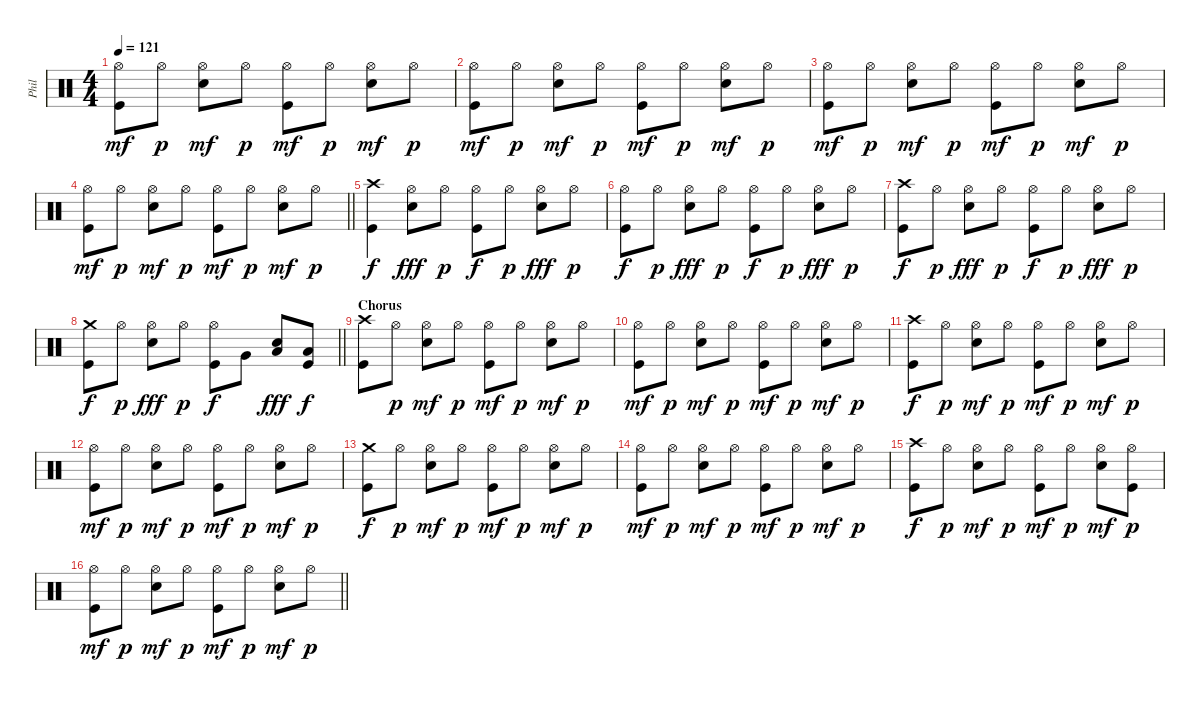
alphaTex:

\track ("Phil" "Phil") {instrument percussion}
\staff {score}
\articulation defaults
\ts (4 4)
\tempo 121
\clef neutral
\ks c
("Hi-Hat (open)" "Kick (hit)").8{dy mf} "Hi-Hat (open)".8{dy p} ("Hi-Hat (open)" "Snare (hit) 2").8{dy mf} "Hi-Hat (open)".8{dy p} ("Hi-Hat (open)" "Kick (hit)").8{dy mf} "Hi-Hat (open)".8{dy p} ("Hi-Hat (open)" "Snare (hit) 2").8{dy mf} "Hi-Hat (open)".8{dy p} |
("Hi-Hat (open)" "Kick (hit)").8{dy mf} "Hi-Hat (open)".8{dy p} ("Hi-Hat (open)" "Snare (hit) 2").8{dy mf} "Hi-Hat (open)".8{dy p} ("Hi-Hat (open)" "Kick (hit)").8{dy mf} "Hi-Hat (open)".8{dy p} ("Hi-Hat (open)" "Snare (hit) 2").8{dy mf} "Hi-Hat (open)".8{dy p} |
("Hi-Hat (open)" "Kick (hit)").8{dy mf} "Hi-Hat (open)".8{dy p} ("Hi-Hat (open)" "Snare (hit) 2").8{dy mf} "Hi-Hat (open)".8{dy p} ("Hi-Hat (open)" "Kick (hit)").8{dy mf} "Hi-Hat (open)".8{dy p} ("Hi-Hat (open)" "Snare (hit) 2").8{dy mf} "Hi-Hat (open)".8{dy p} |
\barLineRight lightlight
("Hi-Hat (open)" "Kick (hit)").8{dy mf} "Hi-Hat (open)".8{dy p} ("Hi-Hat (open)" "Snare (hit) 2").8{dy mf} "Hi-Hat (open)".8{dy p} ("Hi-Hat (open)" "Kick (hit)").8{dy mf} "Hi-Hat (open)".8{dy p} ("Hi-Hat (open)" "Snare (hit) 2").8{dy mf} "Hi-Hat (open)".8{dy p} |
("Crash high (hit)" "Kick (hit)").4{dy f} ("Hi-Hat (open)" "Snare (hit) 2").8{dy fff} "Hi-Hat (open)".8{dy p} ("Hi-Hat (open)" "Kick (hit)").8{dy f} "Hi-Hat (open)".8{dy p} ("Hi-Hat (open)" "Snare (hit) 2").8{dy fff} "Hi-Hat (open)".8{dy p} |
("Hi-Hat (open)" "Kick (hit)").8{dy f} "Hi-Hat (open)".8{dy p} ("Hi-Hat (open)" "Snare (hit) 2").8{dy fff} "Hi-Hat (open)".8{dy p} ("Hi-Hat (open)" "Kick (hit)").8{dy f} "Hi-Hat (open)".8{dy p} ("Hi-Hat (open)" "Snare (hit) 2").8{dy fff} "Hi-Hat (open)".8{dy p} |
("Crash high (hit)" "Kick (hit)").8{dy f} "Hi-Hat (open)".8{dy p} ("Hi-Hat (open)" "Snare (hit) 2").8{dy fff} "Hi-Hat (open)".8{dy p} ("Hi-Hat (open)" "Kick (hit)").8{dy f} "Hi-Hat (open)".8{dy p} ("Hi-Hat (open)" "Snare (hit) 2").8{dy fff} "Hi-Hat (open)".8{dy p} |
\barLineRight lightlight
("Crash medium (hit)" "Kick (hit)").8{dy f} "Hi-Hat (open)".8{dy p} ("Hi-Hat (open)" "Snare (hit) 2").8{dy fff} "Hi-Hat (open)".8{dy p} ("Hi-Hat (open)" "Kick (hit)").8{dy f} "Very Low Tom (hit)".8 ("Low Tom (hit)" "Snare (hit) 2").8{dy fff} ("Low Floor Tom (hit)" "Kick (hit)").8{dy f} |
\section ("" "Chorus")
("Crash high (hit)" "Kick (hit)").8 "Hi-Hat (open)".8{dy p} ("Hi-Hat (open)" "Snare (hit) 2").8{dy mf} "Hi-Hat (open)".8{dy p} ("Hi-Hat (open)" "Kick (hit)").8{dy mf} "Hi-Hat (open)".8{dy p} ("Hi-Hat (open)" "Snare (hit) 2").8{dy mf} "Hi-Hat (open)".8{dy p} |
("Hi-Hat (open)" "Kick (hit)").8{dy mf} "Hi-Hat (open)".8{dy p} ("Hi-Hat (open)" "Snare (hit) 2").8{dy mf} "Hi-Hat (open)".8{dy p} ("Hi-Hat (open)" "Kick (hit)").8{dy mf} "Hi-Hat (open)".8{dy p} ("Hi-Hat (open)" "Snare (hit) 2").8{dy mf} "Hi-Hat (open)".8{dy p} |
("Crash high (hit)" "Kick (hit)").8{dy f} "Hi-Hat (open)".8{dy p} ("Hi-Hat (open)" "Snare (hit) 2").8{dy mf} "Hi-Hat (open)".8{dy p} ("Hi-Hat (open)" "Kick (hit)").8{dy mf} "Hi-Hat (open)".8{dy p} ("Hi-Hat (open)" "Snare (hit) 2").8{dy mf} "Hi-Hat (open)".8{dy p} |
("Hi-Hat (open)" "Kick (hit)").8{dy mf} "Hi-Hat (open)".8{dy p} ("Hi-Hat (open)" "Snare (hit) 2").8{dy mf} "Hi-Hat (open)".8{dy p} ("Hi-Hat (open)" "Kick (hit)").8{dy mf} "Hi-Hat (open)".8{dy p} ("Hi-Hat (open)" "Snare (hit) 2").8{dy mf} "Hi-Hat (open)".8{dy p} |
("Crash medium (hit)" "Kick (hit)").8{dy f} "Hi-Hat (open)".8{dy p} ("Hi-Hat (open)" "Snare (hit) 2").8{dy mf} "Hi-Hat (open)".8{dy p} ("Hi-Hat (open)" "Kick (hit)").8{dy mf} "Hi-Hat (open)".8{dy p} ("Hi-Hat (open)" "Snare (hit) 2").8{dy mf} "Hi-Hat (open)".8{dy p} |
("Hi-Hat (open)" "Kick (hit)").8{dy mf} "Hi-Hat (open)".8{dy p} ("Hi-Hat (open)" "Snare (hit) 2").8{dy mf} "Hi-Hat (open)".8{dy p} ("Hi-Hat (open)" "Kick (hit)").8{dy mf} "Hi-Hat (open)".8{dy p} ("Hi-Hat (open)" "Snare (hit) 2").8{dy mf} "Hi-Hat (open)".8{dy p} |
("Crash high (hit)" "Kick (hit)").8{dy f} "Hi-Hat (open)".8{dy p} ("Hi-Hat (open)" "Snare (hit) 2").8{dy mf} "Hi-Hat (open)".8{dy p} ("Hi-Hat (open)" "Kick (hit)").8{dy mf} "Hi-Hat (open)".8{dy p} ("Hi-Hat (open)" "Snare (hit) 2").8{dy mf} ("Hi-Hat (open)" "Kick (hit)").8{dy p} |
\barLineRight lightlight
("Hi-Hat (open)" "Kick (hit)").8{dy mf} "Hi-Hat (open)".8{dy p} ("Hi-Hat (open)" "Snare (hit) 2").8{dy mf} "Hi-Hat (open)".8{dy p} ("Hi-Hat (open)" "Kick (hit)").8{dy mf} "Hi-Hat (open)".8{dy p} ("Hi-Hat (open)" "Snare (hit) 2").8{dy mf} "Hi-Hat (open)".8{dy p}
